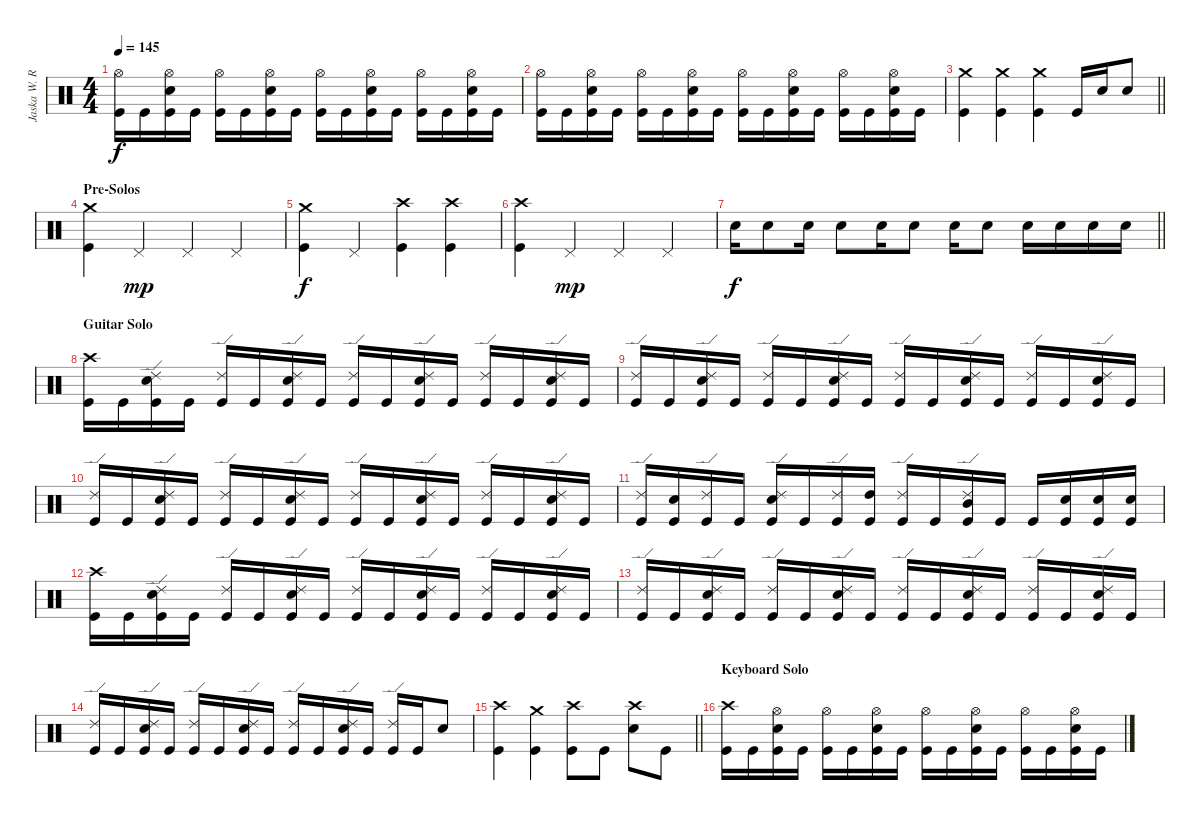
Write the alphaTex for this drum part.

\track ("Jaska W. Raatikainen" "Jaska W. R") {instrument percussion}
\staff {score}
\articulation defaults
\ts (4 4)
\tempo 145
\clef neutral
\ks c
("Hi-Hat (open)" "Kick (hit)").16{dy f} "Kick (hit)".16 ("Hi-Hat (open)" "Snare (hit) 2" "Kick (hit)").16 "Kick (hit)".16 ("Hi-Hat (open)" "Kick (hit)").16 "Kick (hit)".16 ("Hi-Hat (open)" "Snare (hit) 2" "Kick (hit)").16 "Kick (hit)".16 ("Hi-Hat (open)" "Kick (hit)").16 "Kick (hit)".16 ("Hi-Hat (open)" "Snare (hit) 2" "Kick (hit)").16 "Kick (hit)".16 ("Hi-Hat (open)" "Kick (hit)").16 "Kick (hit)".16 ("Hi-Hat (open)" "Snare (hit) 2" "Kick (hit)").16 "Kick (hit)".16 |
("Hi-Hat (open)" "Kick (hit)").16 "Kick (hit)".16 ("Hi-Hat (open)" "Snare (hit) 2" "Kick (hit)").16 "Kick (hit)".16 ("Hi-Hat (open)" "Kick (hit)").16 "Kick (hit)".16 ("Hi-Hat (open)" "Snare (hit) 2" "Kick (hit)").16 "Kick (hit)".16 ("Hi-Hat (open)" "Kick (hit)").16 "Kick (hit)".16 ("Hi-Hat (open)" "Snare (hit) 2" "Kick (hit)").16 "Kick (hit)".16 ("Hi-Hat (open)" "Kick (hit)").16 "Kick (hit)".16 ("Hi-Hat (open)" "Snare (hit) 2" "Kick (hit)").16 "Kick (hit)".16 |
\barLineRight lightlight
("Crash medium (hit)" "Kick (hit)").4 ("Crash medium (hit)" "Kick (hit)").4 ("Crash medium (hit)" "Kick (hit)").4 "Kick (hit)".16 "Snare (hit) 2".16 "Snare (hit) 2".8 |
\section ("" "Pre-Solos")
("Crash medium (hit)" "Kick (hit)").4 "Pedal Hi-Hat (hit)".4{dy mp} "Pedal Hi-Hat (hit)".4 "Pedal Hi-Hat (hit)".4 |
("Crash medium (hit)" "Kick (hit)").4{dy f} "Pedal Hi-Hat (hit)".4 ("Crash high (hit)" "Kick (hit)").4 ("Crash high (hit)" "Kick (hit)").4 |
("Crash high (hit)" "Kick (hit)").4 "Pedal Hi-Hat (hit)".4{dy mp} "Pedal Hi-Hat (hit)".4 "Pedal Hi-Hat (hit)".4 |
\barLineRight lightlight "Snare (hit) 2".16{dy f} "Snare (hit) 2".8 "Snare (hit) 2".16 "Snare (hit) 2".8 "Snare (hit) 2".16 "Snare (hit) 2".8 "Snare (hit) 2".16 "Snare (hit) 2".8 "Snare (hit) 2".16 "Snare (hit) 2".16 "Snare (hit) 2".16 "Snare (hit) 2".16
|
\section ("" "Guitar Solo")
("Crash high (hit)" "Kick (hit)").16 "Kick (hit)".16 ("Ride (edge) 2" "Snare (hit) 2" "Kick (hit)").16 "Kick (hit)".16 ("Ride (edge) 2" "Kick (hit)").16 "Kick (hit)".16 ("Ride (edge) 2" "Snare (hit) 2" "Kick (hit)").16 "Kick (hit)".16 ("Ride (edge) 2" "Kick (hit)").16 "Kick (hit)".16 ("Ride (edge) 2" "Snare (hit) 2" "Kick (hit)").16 "Kick (hit)".16 ("Ride (edge) 2" "Kick (hit)").16 "Kick (hit)".16 ("Ride (edge) 2" "Snare (hit) 2" "Kick (hit)").16 "Kick (hit)".16 |
("Ride (edge) 2" "Kick (hit)").16 "Kick (hit)".16 ("Ride (edge) 2" "Snare (hit) 2" "Kick (hit)").16 "Kick (hit)".16 ("Ride (edge) 2" "Kick (hit)").16 "Kick (hit)".16 ("Ride (edge) 2" "Snare (hit) 2" "Kick (hit)").16 "Kick (hit)".16 ("Ride (edge) 2" "Kick (hit)").16 "Kick (hit)".16 ("Ride (edge) 2" "Snare (hit) 2" "Kick (hit)").16 "Kick (hit)".16 ("Ride (edge) 2" "Kick (hit)").16 "Kick (hit)".16 ("Ride (edge) 2" "Snare (hit) 2" "Kick (hit)").16 "Kick (hit)".16 |
("Ride (edge) 2" "Kick (hit)").16 "Kick (hit)".16 ("Ride (edge) 2" "Snare (hit) 2" "Kick (hit)").16 "Kick (hit)".16 ("Ride (edge) 2" "Kick (hit)").16 "Kick (hit)".16 ("Ride (edge) 2" "Snare (hit) 2" "Kick (hit)").16 "Kick (hit)".16 ("Ride (edge) 2" "Kick (hit)").16 "Kick (hit)".16 ("Ride (edge) 2" "Snare (hit) 2" "Kick (hit)").16 "Kick (hit)".16 ("Ride (edge) 2" "Kick (hit)").16 "Kick (hit)".16 ("Ride (edge) 2" "Snare (hit) 2" "Kick (hit)").16 "Kick (hit)".16 |
("Ride (edge) 2" "Kick (hit)").16 ("Snare (hit) 2" "Kick (hit)").16 ("Ride (edge) 2" "Kick (hit)").16 "Kick (hit)".16 ("Ride (edge) 2" "Snare (hit) 2" "Kick (hit)").16 "Kick (hit)".16 ("Ride (edge) 2" "Kick (hit)").16 ("High Tom (hit)" "Kick (hit)").16 ("Ride (edge) 2" "Kick (hit)").16 "Kick (hit)".16 ("Mid Tom (hit)" "Ride (edge) 2" "Kick (hit)").16 "Kick (hit)".16 "Kick (hit)".16 ("Snare (hit) 2" "Kick (hit)").16 ("Snare (hit) 2" "Kick (hit)").16 ("Snare (hit) 2" "Kick (hit)").16 |
("Crash high (hit)" "Kick (hit)").16 "Kick (hit)".16 ("Ride (edge) 2" "Snare (hit) 2" "Kick (hit)").16 "Kick (hit)".16 ("Ride (edge) 2" "Kick (hit)").16 "Kick (hit)".16 ("Ride (edge) 2" "Snare (hit) 2" "Kick (hit)").16 "Kick (hit)".16 ("Ride (edge) 2" "Kick (hit)").16 "Kick (hit)".16 ("Ride (edge) 2" "Snare (hit) 2" "Kick (hit)").16 "Kick (hit)".16 ("Ride (edge) 2" "Kick (hit)").16 "Kick (hit)".16 ("Ride (edge) 2" "Snare (hit) 2" "Kick (hit)").16 "Kick (hit)".16 |
("Ride (edge) 2" "Kick (hit)").16 "Kick (hit)".16 ("Ride (edge) 2" "Snare (hit) 2" "Kick (hit)").16 "Kick (hit)".16 ("Ride (edge) 2" "Kick (hit)").16 "Kick (hit)".16 ("Ride (edge) 2" "Snare (hit) 2" "Kick (hit)").16 "Kick (hit)".16 ("Ride (edge) 2" "Kick (hit)").16 "Kick (hit)".16 ("Ride (edge) 2" "Snare (hit) 2" "Kick (hit)").16 "Kick (hit)".16 ("Ride (edge) 2" "Kick (hit)").16 "Kick (hit)".16 ("Ride (edge) 2" "Snare (hit) 2" "Kick (hit)").16 "Kick (hit)".16 |
("Ride (edge) 2" "Kick (hit)").16 "Kick (hit)".16 ("Ride (edge) 2" "Snare (hit) 2" "Kick (hit)").16 "Kick (hit)".16 ("Ride (edge) 2" "Kick (hit)").16 "Kick (hit)".16 ("Ride (edge) 2" "Snare (hit) 2" "Kick (hit)").16 "Kick (hit)".16 ("Ride (edge) 2" "Kick (hit)").16 "Kick (hit)".16 ("Ride (edge) 2" "Snare (hit) 2" "Kick (hit)").16 "Kick (hit)".16 ("Ride (edge) 2" "Kick (hit)").16 "Kick (hit)".16 "Snare (hit) 2".8 |
\barLineRight lightlight
("Crash high (hit)" "Kick (hit)").4 ("Crash medium (hit)" "Kick (hit)").4 ("Crash high (hit)" "Kick (hit)").8 "Kick (hit)".8 ("Crash high (hit)" "Snare (hit) 2").8 "Kick (hit)".8 |
\section ("" "Keyboard Solo")
("Crash high (hit)" "Kick (hit)").16 "Kick (hit)".16 ("Hi-Hat (open)" "Snare (hit) 2" "Kick (hit)").16 "Kick (hit)".16 ("Hi-Hat (open)" "Kick (hit)").16 "Kick (hit)".16 ("Hi-Hat (open)" "Snare (hit) 2" "Kick (hit)").16 "Kick (hit)".16 ("Hi-Hat (open)" "Kick (hit)").16 "Kick (hit)".16 ("Hi-Hat (open)" "Snare (hit) 2" "Kick (hit)").16 "Kick (hit)".16 ("Hi-Hat (open)" "Kick (hit)").16 "Kick (hit)".16 ("Hi-Hat (open)" "Snare (hit) 2" "Kick (hit)").16 "Kick (hit)".16
